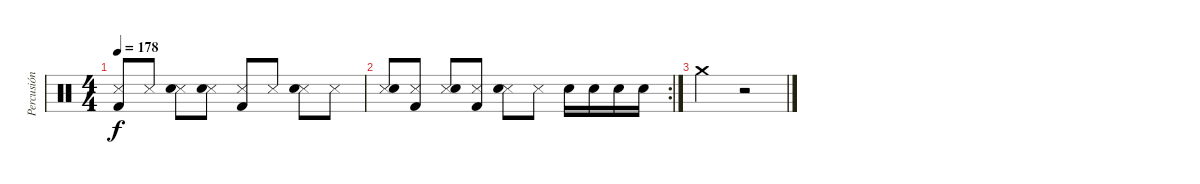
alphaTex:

\track ("Percusión" "Percusión") {instrument percussion}
\staff {score}
\articulation defaults
\ts (4 4)
\tempo 178
\clef neutral
\ks c
("Snare (side stick) 3" "Kick (hit) 2").8{dy f} "Snare (side stick) 3".8 ("Snare (side stick) 3" "Electric Snare (hit)").8 ("Snare (side stick) 3" "Electric Snare (hit)").8 ("Snare (side stick) 3" "Kick (hit) 2").8 "Snare (side stick) 3".8 ("Snare (side stick) 3" "Electric Snare (hit)").8 "Snare (side stick) 3".8 |
\rc 2
("Snare (side stick) 3" "Electric Snare (hit)").8 ("Snare (side stick) 3" "Kick (hit) 2").8 ("Snare (side stick) 3" "Electric Snare (hit)").8 ("Snare (side stick) 3" "Kick (hit) 2").8 ("Snare (side stick) 3" "Electric Snare (hit)").8 "Snare (side stick) 3".8 "Electric Snare (hit)".16 "Electric Snare (hit)".16 "Electric Snare (hit)".16 "Electric Snare (hit)".16 |
"Crash medium (hit)".2 r.2
